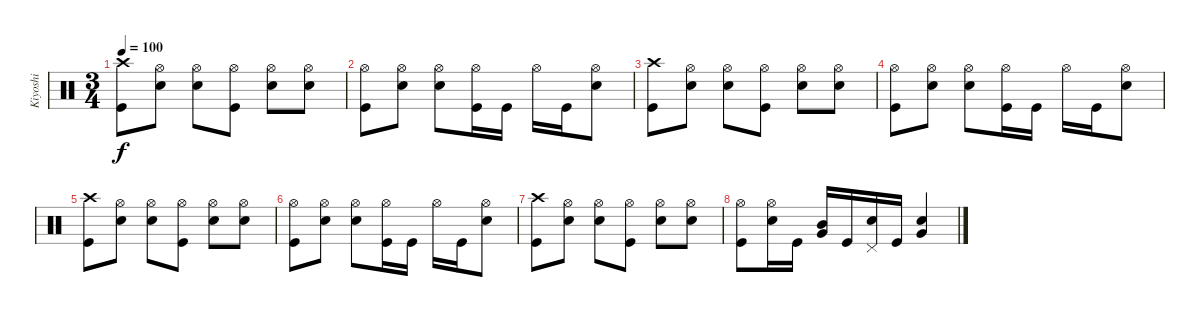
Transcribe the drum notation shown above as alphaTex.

\track ("Kiyoshi" "Kiyoshi") {instrument percussion}
\staff {score}
\articulation defaults
\ts (3 4)
\tempo 100
\clef neutral
\ks c
("Kick (hit)" "Crash high (hit)").8{dy f} ("Hi-Hat (open)" "Electric Snare (hit)").8 ("Hi-Hat (open)" "Electric Snare (hit)").8 ("Kick (hit)" "Hi-Hat (open)").8 ("Electric Snare (hit)" "Hi-Hat (open)").8 ("Electric Snare (hit)" "Hi-Hat (open)").8 |
("Kick (hit)" "Hi-Hat (open)").8 ("Electric Snare (hit)" "Hi-Hat (open)").8 ("Electric Snare (hit)" "Hi-Hat (open)").8 ("Kick (hit)" "Hi-Hat (open)").16 "Kick (hit)".16 "Hi-Hat (open)".16 "Kick (hit)".16 ("Hi-Hat (open)" "Electric Snare (hit)").8 |
("Kick (hit)" "Crash high (hit)").8 ("Hi-Hat (open)" "Electric Snare (hit)").8 ("Hi-Hat (open)" "Electric Snare (hit)").8 ("Kick (hit)" "Hi-Hat (open)").8 ("Electric Snare (hit)" "Hi-Hat (open)").8 ("Electric Snare (hit)" "Hi-Hat (open)").8 |
("Kick (hit)" "Hi-Hat (open)").8 ("Electric Snare (hit)" "Hi-Hat (open)").8 ("Electric Snare (hit)" "Hi-Hat (open)").8 ("Kick (hit)" "Hi-Hat (open)").16 "Kick (hit)".16 "Hi-Hat (open)".16 "Kick (hit)".16 ("Hi-Hat (open)" "Electric Snare (hit)").8 |
("Kick (hit)" "Crash high (hit)").8 ("Hi-Hat (open)" "Electric Snare (hit)").8 ("Hi-Hat (open)" "Electric Snare (hit)").8 ("Kick (hit)" "Hi-Hat (open)").8 ("Electric Snare (hit)" "Hi-Hat (open)").8 ("Electric Snare (hit)" "Hi-Hat (open)").8 |
("Kick (hit)" "Hi-Hat (open)").8 ("Electric Snare (hit)" "Hi-Hat (open)").8 ("Electric Snare (hit)" "Hi-Hat (open)").8 ("Kick (hit)" "Hi-Hat (open)").16 "Kick (hit)".16 "Hi-Hat (open)".16 "Kick (hit)".16 ("Hi-Hat (open)" "Electric Snare (hit)").8 |
("Kick (hit)" "Crash high (hit)").8 ("Hi-Hat (open)" "Electric Snare (hit)").8 ("Hi-Hat (open)" "Electric Snare (hit)").8 ("Kick (hit)" "Hi-Hat (open)").8 ("Electric Snare (hit)" "Hi-Hat (open)").8 ("Electric Snare (hit)" "Hi-Hat (open)").8 |
("Kick (hit)" "Hi-Hat (open)").8 ("Electric Snare (hit)" "Hi-Hat (open)").16 "Kick (hit)".16 ("Mid Tom (hit)" "Very Low Tom (hit)").16 "Kick (hit)".16 ("Electric Snare (hit)" "Pedal Hi-Hat (hit)").16 "Kick (hit)".16 ("Very Low Tom (hit)" "Electric Snare (hit)").4
